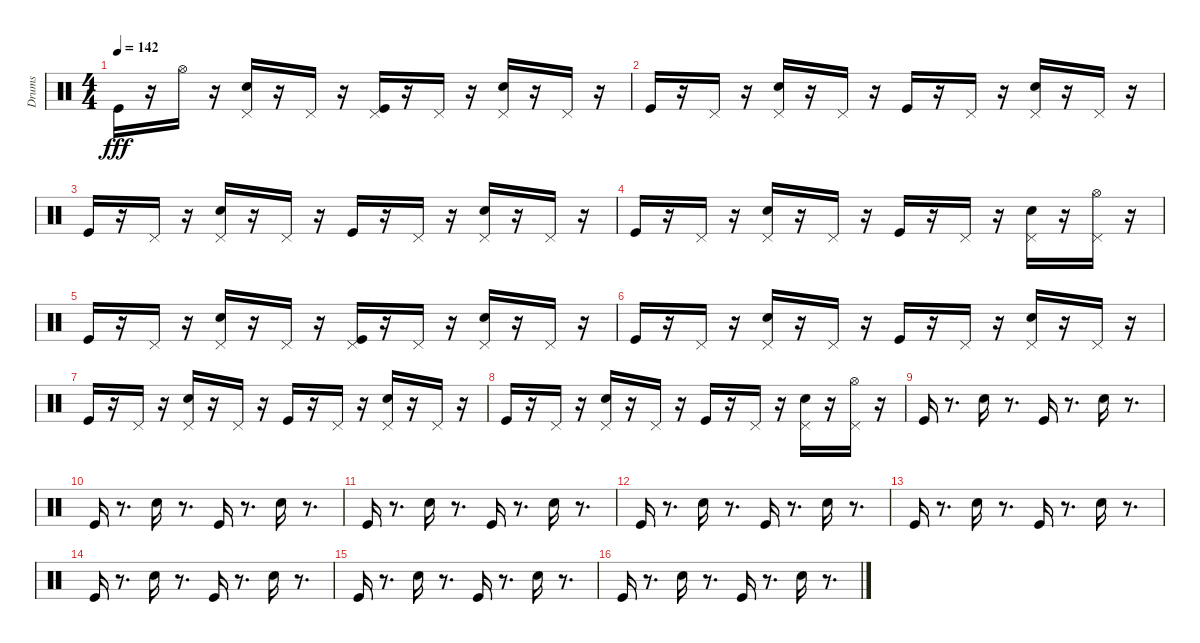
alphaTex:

\track ("Drums" "Drums") {instrument percussion}
\staff {score}
\articulation defaults
\ts (4 4)
\tempo 142
\clef neutral
\ks c "Kick (hit)".16{dy fff}
r.16 "Hi-Hat (open)".16 r.16 ("Snare (hit) 2" "Pedal Hi-Hat (hit)").16 r.16 "Pedal Hi-Hat (hit)".16 r.16 ("Kick (hit)" "Pedal Hi-Hat (hit)").16 r.16 "Pedal Hi-Hat (hit)".16 r.16 ("Snare (hit) 2" "Pedal Hi-Hat (hit)").16 r.16 "Pedal Hi-Hat (hit)".16 r.16 |
"Kick (hit)".16 r.16 "Pedal Hi-Hat (hit)".16 r.16 ("Snare (hit) 2" "Pedal Hi-Hat (hit)").16 r.16 "Pedal Hi-Hat (hit)".16 r.16 "Kick (hit)".16 r.16 "Pedal Hi-Hat (hit)".16 r.16 ("Snare (hit) 2" "Pedal Hi-Hat (hit)").16 r.16 "Pedal Hi-Hat (hit)".16 r.16 |
"Kick (hit)".16 r.16 "Pedal Hi-Hat (hit)".16 r.16 ("Snare (hit) 2" "Pedal Hi-Hat (hit)").16 r.16 "Pedal Hi-Hat (hit)".16 r.16 "Kick (hit)".16 r.16 "Pedal Hi-Hat (hit)".16 r.16 ("Snare (hit) 2" "Pedal Hi-Hat (hit)").16 r.16 "Pedal Hi-Hat (hit)".16 r.16 |
"Kick (hit)".16 r.16 "Pedal Hi-Hat (hit)".16 r.16 ("Snare (hit) 2" "Pedal Hi-Hat (hit)").16 r.16 "Pedal Hi-Hat (hit)".16 r.16 "Kick (hit)".16 r.16 "Pedal Hi-Hat (hit)".16 r.16 ("Snare (hit) 2" "Pedal Hi-Hat (hit)").16 r.16 ("Pedal Hi-Hat (hit)" "Hi-Hat (open)").16 r.16 |
"Kick (hit)".16 r.16 "Pedal Hi-Hat (hit)".16 r.16 ("Snare (hit) 2" "Pedal Hi-Hat (hit)").16 r.16 "Pedal Hi-Hat (hit)".16 r.16 ("Kick (hit)" "Pedal Hi-Hat (hit)").16 r.16 "Pedal Hi-Hat (hit)".16 r.16 ("Snare (hit) 2" "Pedal Hi-Hat (hit)").16 r.16 "Pedal Hi-Hat (hit)".16 r.16 |
"Kick (hit)".16 r.16 "Pedal Hi-Hat (hit)".16 r.16 ("Snare (hit) 2" "Pedal Hi-Hat (hit)").16 r.16 "Pedal Hi-Hat (hit)".16 r.16 "Kick (hit)".16 r.16 "Pedal Hi-Hat (hit)".16 r.16 ("Snare (hit) 2" "Pedal Hi-Hat (hit)").16 r.16 "Pedal Hi-Hat (hit)".16 r.16 |
"Kick (hit)".16 r.16 "Pedal Hi-Hat (hit)".16 r.16 ("Snare (hit) 2" "Pedal Hi-Hat (hit)").16 r.16 "Pedal Hi-Hat (hit)".16 r.16 "Kick (hit)".16 r.16 "Pedal Hi-Hat (hit)".16 r.16 ("Snare (hit) 2" "Pedal Hi-Hat (hit)").16 r.16 "Pedal Hi-Hat (hit)".16 r.16 |
"Kick (hit)".16 r.16 "Pedal Hi-Hat (hit)".16 r.16 ("Snare (hit) 2" "Pedal Hi-Hat (hit)").16 r.16 "Pedal Hi-Hat (hit)".16 r.16 "Kick (hit)".16 r.16 "Pedal Hi-Hat (hit)".16 r.16 ("Snare (hit) 2" "Pedal Hi-Hat (hit)").16 r.16 ("Pedal Hi-Hat (hit)" "Hi-Hat (open)").16 r.16 |
"Kick (hit)".16 r.8{d} "Snare (hit) 2".16 r.8{d} "Kick (hit)".16 r.8{d} "Snare (hit) 2".16 r.8{d} |
"Kick (hit)".16 r.8{d} "Snare (hit) 2".16 r.8{d} "Kick (hit)".16 r.8{d} "Snare (hit) 2".16 r.8{d} |
"Kick (hit)".16 r.8{d} "Snare (hit) 2".16 r.8{d} "Kick (hit)".16 r.8{d} "Snare (hit) 2".16 r.8{d} |
"Kick (hit)".16 r.8{d} "Snare (hit) 2".16 r.8{d} "Kick (hit)".16 r.8{d} "Snare (hit) 2".16 r.8{d} |
"Kick (hit)".16 r.8{d} "Snare (hit) 2".16 r.8{d} "Kick (hit)".16 r.8{d} "Snare (hit) 2".16 r.8{d} |
"Kick (hit)".16 r.8{d} "Snare (hit) 2".16 r.8{d} "Kick (hit)".16 r.8{d} "Snare (hit) 2".16 r.8{d} |
"Kick (hit)".16 r.8{d} "Snare (hit) 2".16 r.8{d} "Kick (hit)".16 r.8{d} "Snare (hit) 2".16 r.8{d} |
"Kick (hit)".16 r.8{d} "Snare (hit) 2".16 r.8{d} "Kick (hit)".16 r.8{d} "Snare (hit) 2".16 r.8{d}
